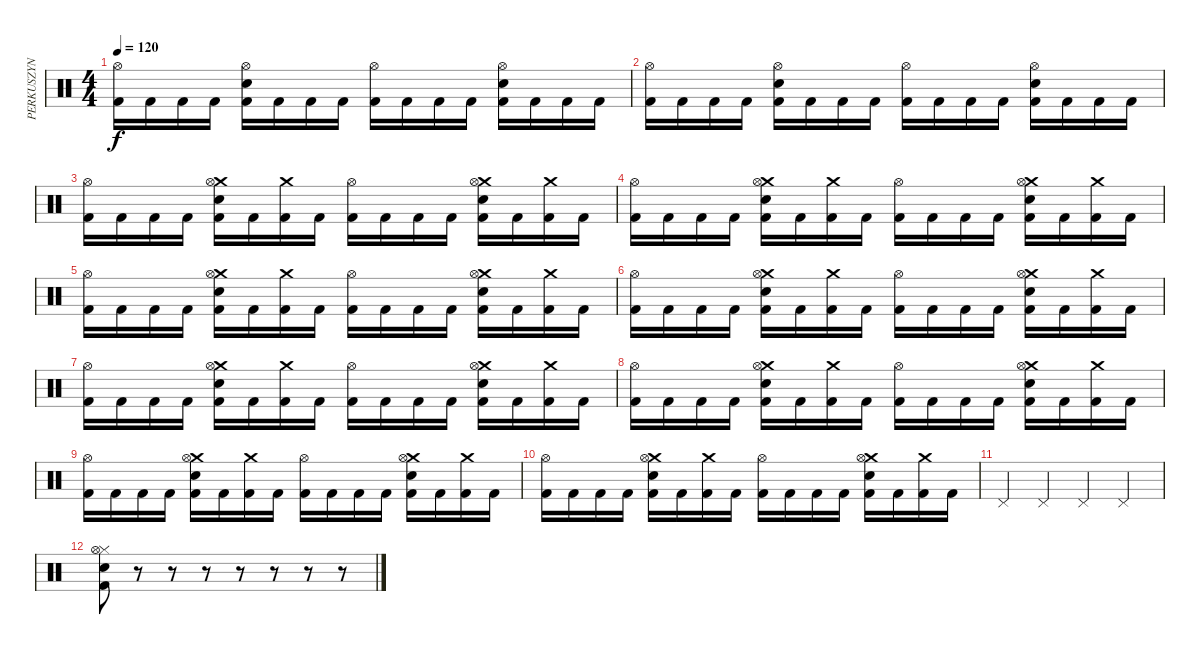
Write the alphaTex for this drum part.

\track ("PERKUSZYN" "PERKUSZYN") {instrument percussion}
\staff {score}
\articulation defaults
\ts (4 4)
\tempo 120
\clef neutral
\ks c
("Hi-Hat (open)" "Kick (hit) 2").16{dy f} "Kick (hit) 2".16 "Kick (hit) 2".16 "Kick (hit) 2".16 ("Hi-Hat (open)" "Electric Snare (hit)" "Kick (hit) 2").16 "Kick (hit) 2".16 "Kick (hit) 2".16 "Kick (hit) 2".16 ("Hi-Hat (open)" "Kick (hit) 2").16 "Kick (hit) 2".16 "Kick (hit) 2".16 "Kick (hit) 2".16 ("Hi-Hat (open)" "Electric Snare (hit)" "Kick (hit) 2").16 "Kick (hit) 2".16 "Kick (hit) 2".16 "Kick (hit) 2".16 |
("Hi-Hat (open)" "Kick (hit) 2").16 "Kick (hit) 2".16 "Kick (hit) 2".16 "Kick (hit) 2".16 ("Hi-Hat (open)" "Electric Snare (hit)" "Kick (hit) 2").16 "Kick (hit) 2".16 "Kick (hit) 2".16 "Kick (hit) 2".16 ("Hi-Hat (open)" "Kick (hit) 2").16 "Kick (hit) 2".16 "Kick (hit) 2".16 "Kick (hit) 2".16 ("Hi-Hat (open)" "Electric Snare (hit)" "Kick (hit) 2").16 "Kick (hit) 2".16 "Kick (hit) 2".16 "Kick (hit) 2".16 |
("Hi-Hat (open)" "Kick (hit) 2").16 "Kick (hit) 2".16 "Kick (hit) 2".16 "Kick (hit) 2".16 ("Crash medium (hit)" "Hi-Hat (open)" "Electric Snare (hit)" "Kick (hit) 2").16 "Kick (hit) 2".16 ("Crash medium (hit)" "Kick (hit) 2").16 "Kick (hit) 2".16 ("Hi-Hat (open)" "Kick (hit) 2").16 "Kick (hit) 2".16 "Kick (hit) 2".16 "Kick (hit) 2".16 ("Crash medium (hit)" "Hi-Hat (open)" "Electric Snare (hit)" "Kick (hit) 2").16 "Kick (hit) 2".16 ("Crash medium (hit)" "Kick (hit) 2").16 "Kick (hit) 2".16 |
("Hi-Hat (open)" "Kick (hit) 2").16 "Kick (hit) 2".16 "Kick (hit) 2".16 "Kick (hit) 2".16 ("Crash medium (hit)" "Hi-Hat (open)" "Electric Snare (hit)" "Kick (hit) 2").16 "Kick (hit) 2".16 ("Crash medium (hit)" "Kick (hit) 2").16 "Kick (hit) 2".16 ("Hi-Hat (open)" "Kick (hit) 2").16 "Kick (hit) 2".16 "Kick (hit) 2".16 "Kick (hit) 2".16 ("Crash medium (hit)" "Hi-Hat (open)" "Electric Snare (hit)" "Kick (hit) 2").16 "Kick (hit) 2".16 ("Crash medium (hit)" "Kick (hit) 2").16 "Kick (hit) 2".16 |
("Hi-Hat (open)" "Kick (hit) 2").16 "Kick (hit) 2".16 "Kick (hit) 2".16 "Kick (hit) 2".16 ("Crash medium (hit)" "Hi-Hat (open)" "Electric Snare (hit)" "Kick (hit) 2").16 "Kick (hit) 2".16 ("Crash medium (hit)" "Kick (hit) 2").16 "Kick (hit) 2".16 ("Hi-Hat (open)" "Kick (hit) 2").16 "Kick (hit) 2".16 "Kick (hit) 2".16 "Kick (hit) 2".16 ("Crash medium (hit)" "Hi-Hat (open)" "Electric Snare (hit)" "Kick (hit) 2").16 "Kick (hit) 2".16 ("Crash medium (hit)" "Kick (hit) 2").16 "Kick (hit) 2".16 |
("Hi-Hat (open)" "Kick (hit) 2").16 "Kick (hit) 2".16 "Kick (hit) 2".16 "Kick (hit) 2".16 ("Crash medium (hit)" "Hi-Hat (open)" "Electric Snare (hit)" "Kick (hit) 2").16 "Kick (hit) 2".16 ("Crash medium (hit)" "Kick (hit) 2").16 "Kick (hit) 2".16 ("Hi-Hat (open)" "Kick (hit) 2").16 "Kick (hit) 2".16 "Kick (hit) 2".16 "Kick (hit) 2".16 ("Crash medium (hit)" "Hi-Hat (open)" "Electric Snare (hit)" "Kick (hit) 2").16 "Kick (hit) 2".16 ("Crash medium (hit)" "Kick (hit) 2").16 "Kick (hit) 2".16 |
("Hi-Hat (open)" "Kick (hit) 2").16 "Kick (hit) 2".16 "Kick (hit) 2".16 "Kick (hit) 2".16 ("Crash medium (hit)" "Hi-Hat (open)" "Electric Snare (hit)" "Kick (hit) 2").16 "Kick (hit) 2".16 ("Crash medium (hit)" "Kick (hit) 2").16 "Kick (hit) 2".16 ("Hi-Hat (open)" "Kick (hit) 2").16 "Kick (hit) 2".16 "Kick (hit) 2".16 "Kick (hit) 2".16 ("Crash medium (hit)" "Hi-Hat (open)" "Electric Snare (hit)" "Kick (hit) 2").16 "Kick (hit) 2".16 ("Crash medium (hit)" "Kick (hit) 2").16 "Kick (hit) 2".16 |
("Hi-Hat (open)" "Kick (hit) 2").16 "Kick (hit) 2".16 "Kick (hit) 2".16 "Kick (hit) 2".16 ("Crash medium (hit)" "Hi-Hat (open)" "Electric Snare (hit)" "Kick (hit) 2").16 "Kick (hit) 2".16 ("Crash medium (hit)" "Kick (hit) 2").16 "Kick (hit) 2".16 ("Hi-Hat (open)" "Kick (hit) 2").16 "Kick (hit) 2".16 "Kick (hit) 2".16 "Kick (hit) 2".16 ("Crash medium (hit)" "Hi-Hat (open)" "Electric Snare (hit)" "Kick (hit) 2").16 "Kick (hit) 2".16 ("Crash medium (hit)" "Kick (hit) 2").16 "Kick (hit) 2".16 |
("Hi-Hat (open)" "Kick (hit) 2").16 "Kick (hit) 2".16 "Kick (hit) 2".16 "Kick (hit) 2".16 ("Crash medium (hit)" "Hi-Hat (open)" "Electric Snare (hit)" "Kick (hit) 2").16 "Kick (hit) 2".16 ("Crash medium (hit)" "Kick (hit) 2").16 "Kick (hit) 2".16 ("Hi-Hat (open)" "Kick (hit) 2").16 "Kick (hit) 2".16 "Kick (hit) 2".16 "Kick (hit) 2".16 ("Crash medium (hit)" "Hi-Hat (open)" "Electric Snare (hit)" "Kick (hit) 2").16 "Kick (hit) 2".16 ("Crash medium (hit)" "Kick (hit) 2").16 "Kick (hit) 2".16 |
("Hi-Hat (open)" "Kick (hit) 2").16 "Kick (hit) 2".16 "Kick (hit) 2".16 "Kick (hit) 2".16 ("Crash medium (hit)" "Hi-Hat (open)" "Electric Snare (hit)" "Kick (hit) 2").16 "Kick (hit) 2".16 ("Crash medium (hit)" "Kick (hit) 2").16 "Kick (hit) 2".16 ("Hi-Hat (open)" "Kick (hit) 2").16 "Kick (hit) 2".16 "Kick (hit) 2".16 "Kick (hit) 2".16 ("Crash medium (hit)" "Hi-Hat (open)" "Electric Snare (hit)" "Kick (hit) 2").16 "Kick (hit) 2".16 ("Crash medium (hit)" "Kick (hit) 2").16 "Kick (hit) 2".16 |
"Pedal Hi-Hat (hit)".4 "Pedal Hi-Hat (hit)".4 "Pedal Hi-Hat (hit)".4 "Pedal Hi-Hat (hit)".4 |
("Snare (hit) 2" "Kick (hit) 2" "Hi-Hat (closed)" "Hi-Hat (open)").8 r.8 r.8 r.8 r.8 r.8 r.8 r.8
